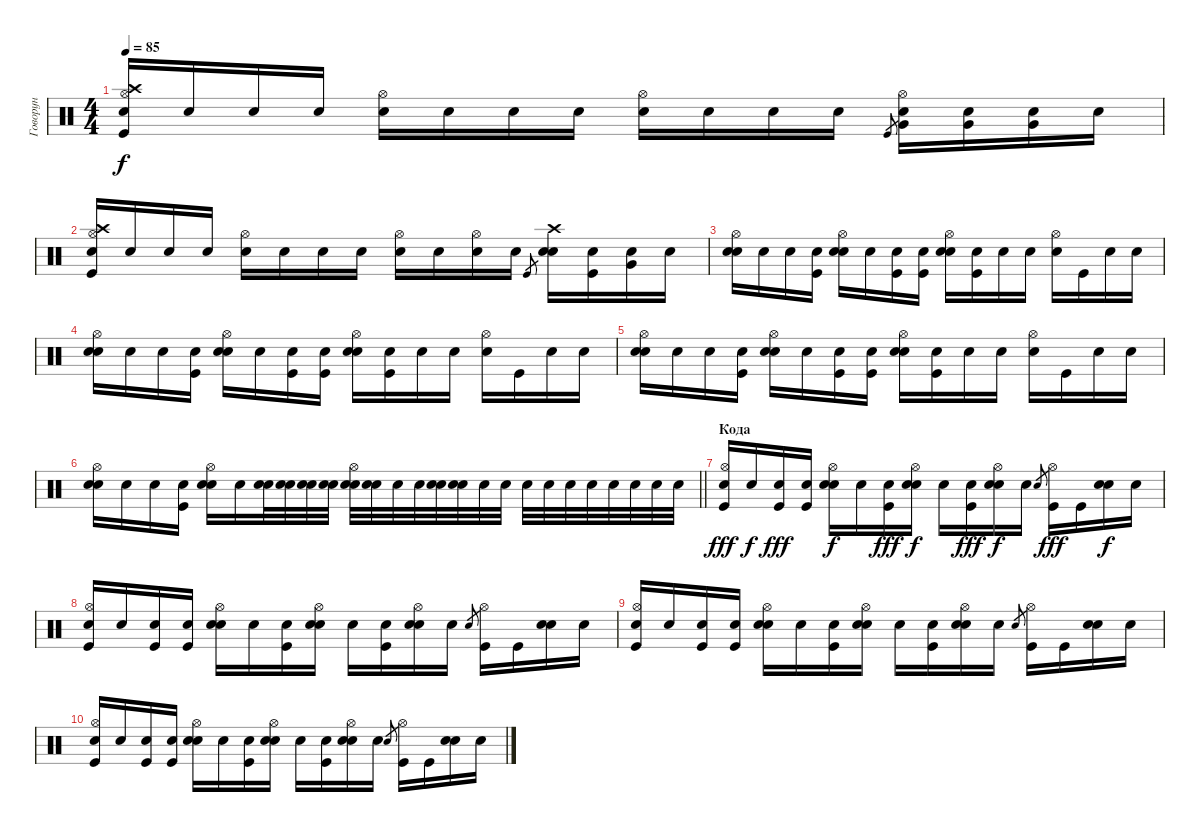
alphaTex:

\track ("Говорун" "Говорун") {instrument percussion}
\staff {score}
\articulation defaults
\ts (4 4)
\tempo 85
\clef neutral
\ks c
("Kick (hit)" "Hi-Hat (open)" "Crash high (hit)" "Snare (hit)"{x}).16{dy f} "Snare (hit)"{x}.16 "Snare (hit)"{x}.16 "Snare (hit)"{x}.16 ("Hi-Hat (open)" "Snare (hit)"{x}).16 "Snare (hit)"{x}.16 "Snare (hit)"{x}.16 "Snare (hit)"{x}.16 ("Hi-Hat (open)" "Snare (hit)"{x}).16 "Snare (hit)"{x}.16 "Snare (hit)"{x}.16 "Snare (hit)"{x}.16 "Kick (hit)".8{gr} ("Very Low Tom (hit)" "Hi-Hat (open)" "Snare (hit)"{x}).16 ("Very Low Tom (hit)" "Snare (hit)"{x}).16 ("Very Low Tom (hit)" "Snare (hit)"{x}).16 "Snare (hit)"{x}.16 |
("Kick (hit)" "Hi-Hat (open)" "Crash high (hit)" "Snare (hit)"{x}).16 "Snare (hit)"{x}.16 "Snare (hit)"{x}.16 "Snare (hit)"{x}.16 ("Hi-Hat (open)" "Snare (hit)"{x}).16 "Snare (hit)"{x}.16 "Snare (hit)"{x}.16 "Snare (hit)"{x}.16 ("Hi-Hat (open)" "Snare (hit)"{x}).16 "Snare (hit)"{x}.16 ("Hi-Hat (open)" "Snare (hit)"{x}).16 "Snare (hit)"{x}.16 "Kick (hit)".8{gr} ("Snare (hit) 2" "Crash high (hit)" "Snare (hit)"{x}).16 ("Kick (hit)" "Snare (hit)"{x}).16 ("Very Low Tom (hit)" "Snare (hit)"{x}).16 "Snare (hit)"{x}.16 |
("Snare (hit)"{x} "Hi-Hat (open)" "Snare (hit) 2").16 "Snare (hit)"{x}.16 "Snare (hit)"{x}.16 ("Snare (hit)"{x} "Kick (hit)").16 ("Snare (hit)"{x} "Hi-Hat (open)" "Snare (hit) 2").16 "Snare (hit)"{x}.16 ("Snare (hit)"{x} "Kick (hit)").16 ("Snare (hit)"{x} "Kick (hit)").16 ("Snare (hit)"{x} "Hi-Hat (open)" "Snare (hit) 2").16 ("Snare (hit)"{x} "Kick (hit)").16 "Snare (hit)"{x}.16 "Snare (hit)"{x}.16 ("Hi-Hat (open)" "Snare (hit) 2").16 "Kick (hit)".16 "Snare (hit)"{x}.16 "Snare (hit)"{x}.16 |
("Snare (hit)"{x} "Hi-Hat (open)" "Snare (hit) 2").16 "Snare (hit)"{x}.16 "Snare (hit)"{x}.16 ("Snare (hit)"{x} "Kick (hit)").16 ("Snare (hit)"{x} "Hi-Hat (open)" "Snare (hit) 2").16 "Snare (hit)"{x}.16 ("Snare (hit)"{x} "Kick (hit)").16 ("Snare (hit)"{x} "Kick (hit)").16 ("Snare (hit)"{x} "Hi-Hat (open)" "Snare (hit) 2").16 ("Snare (hit)"{x} "Kick (hit)").16 "Snare (hit)"{x}.16 "Snare (hit)"{x}.16 ("Hi-Hat (open)" "Snare (hit) 2").16 "Kick (hit)".16 "Snare (hit)"{x}.16 "Snare (hit)"{x}.16 |
("Snare (hit)"{x} "Hi-Hat (open)" "Snare (hit) 2").16 "Snare (hit)"{x}.16 "Snare (hit)"{x}.16 ("Snare (hit)"{x} "Kick (hit)").16 ("Snare (hit)"{x} "Hi-Hat (open)" "Snare (hit) 2").16 "Snare (hit)"{x}.16 ("Snare (hit)"{x} "Kick (hit)").16 ("Snare (hit)"{x} "Kick (hit)").16 ("Snare (hit)"{x} "Hi-Hat (open)" "Snare (hit) 2").16 ("Snare (hit)"{x} "Kick (hit)").16 "Snare (hit)"{x}.16 "Snare (hit)"{x}.16 ("Hi-Hat (open)" "Snare (hit) 2").16 "Kick (hit)".16 "Snare (hit)"{x}.16 "Snare (hit)"{x}.16 |
\barLineRight lightlight
("Snare (hit)"{x} "Hi-Hat (open)" "Snare (hit) 2").16 "Snare (hit)"{x}.16 "Snare (hit)"{x}.16 ("Snare (hit)"{x} "Kick (hit)").16 ("Snare (hit)"{x} "Hi-Hat (open)" "Snare (hit) 2").16 "Snare (hit)"{x}.16 ("Snare (hit)"{x} "Snare (hit) 2").32 ("Snare (hit)"{x} "Snare (hit) 2").32 ("Snare (hit)"{x} "Snare (hit) 2").32 ("Snare (hit)"{x} "Snare (hit) 2").32 ("Snare (hit)"{x} "Hi-Hat (open)" "Snare (hit) 2").32 ("Snare (hit)"{x} "Snare (hit) 2").32 "Snare (hit) 2".32 "Snare (hit) 2".32 ("Snare (hit)"{x} "Snare (hit) 2").32 ("Snare (hit)"{x} "Snare (hit) 2").32 "Snare (hit) 2".32 "Snare (hit) 2".32 "Snare (hit) 2".32 "Snare (hit) 2".32 "Snare (hit) 2".32 "Snare (hit) 2".32 "Snare (hit) 2".32 "Snare (hit) 2".32 "Snare (hit) 2".32 "Snare (hit) 2".32 |
\section ("" "Кода")
("Snare (hit)"{x} "Hi-Hat (open)" "Kick (hit)").16{dy fff} "Snare (hit)"{x}.16{dy f} ("Snare (hit)"{x} "Kick (hit)").16{dy fff} ("Snare (hit)"{x} "Kick (hit)").16 ("Snare (hit)"{x} "Hi-Hat (open)" "Snare (hit) 2").16{dy f} "Snare (hit)"{x}.16 ("Snare (hit)"{x} "Kick (hit)").16{dy fff} ("Snare (hit)"{x} "Hi-Hat (open)" "Snare (hit) 2").16{dy f} "Snare (hit)"{x}.16 ("Snare (hit)"{x} "Kick (hit)").16{dy fff} ("Snare (hit)"{x} "Hi-Hat (open)" "Snare (hit) 2").16{dy f} "Snare (hit)"{x}.16 "Snare (hit) 2".8{gr} ("Hi-Hat (open)" "Kick (hit)").16{dy fff} "Kick (hit)".16 ("Snare (hit)"{x} "Snare (hit) 2").16{dy f} "Snare (hit)"{x}.16 |
("Snare (hit)"{x} "Hi-Hat (open)" "Kick (hit)").16 "Snare (hit)"{x}.16 ("Snare (hit)"{x} "Kick (hit)").16 ("Snare (hit)"{x} "Kick (hit)").16 ("Snare (hit)"{x} "Hi-Hat (open)" "Snare (hit) 2").16 "Snare (hit)"{x}.16 ("Snare (hit)"{x} "Kick (hit)").16 ("Snare (hit)"{x} "Hi-Hat (open)" "Snare (hit) 2").16 "Snare (hit)"{x}.16 ("Snare (hit)"{x} "Kick (hit)").16 ("Snare (hit)"{x} "Hi-Hat (open)" "Snare (hit) 2").16 "Snare (hit)"{x}.16 "Snare (hit) 2".8{gr} ("Hi-Hat (open)" "Kick (hit)").16 "Kick (hit)".16 ("Snare (hit)"{x} "Snare (hit) 2").16 "Snare (hit)"{x}.16 |
("Snare (hit)"{x} "Hi-Hat (open)" "Kick (hit)").16 "Snare (hit)"{x}.16 ("Snare (hit)"{x} "Kick (hit)").16 ("Snare (hit)"{x} "Kick (hit)").16 ("Snare (hit)"{x} "Hi-Hat (open)" "Snare (hit) 2").16 "Snare (hit)"{x}.16 ("Snare (hit)"{x} "Kick (hit)").16 ("Snare (hit)"{x} "Hi-Hat (open)" "Snare (hit) 2").16 "Snare (hit)"{x}.16 ("Snare (hit)"{x} "Kick (hit)").16 ("Snare (hit)"{x} "Hi-Hat (open)" "Snare (hit) 2").16 "Snare (hit)"{x}.16 "Snare (hit) 2".8{gr} ("Hi-Hat (open)" "Kick (hit)").16 "Kick (hit)".16 ("Snare (hit)"{x} "Snare (hit) 2").16 "Snare (hit)"{x}.16 |
("Snare (hit)"{x} "Hi-Hat (open)" "Kick (hit)").16 "Snare (hit)"{x}.16 ("Snare (hit)"{x} "Kick (hit)").16 ("Snare (hit)"{x} "Kick (hit)").16 ("Snare (hit)"{x} "Hi-Hat (open)" "Snare (hit) 2").16 "Snare (hit)"{x}.16 ("Snare (hit)"{x} "Kick (hit)").16 ("Snare (hit)"{x} "Hi-Hat (open)" "Snare (hit) 2").16 "Snare (hit)"{x}.16 ("Snare (hit)"{x} "Kick (hit)").16 ("Snare (hit)"{x} "Hi-Hat (open)" "Snare (hit) 2").16 "Snare (hit)"{x}.16 "Snare (hit) 2".8{gr} ("Hi-Hat (open)" "Kick (hit)").16 "Kick (hit)".16 ("Snare (hit)"{x} "Snare (hit) 2").16 "Snare (hit)"{x}.16
